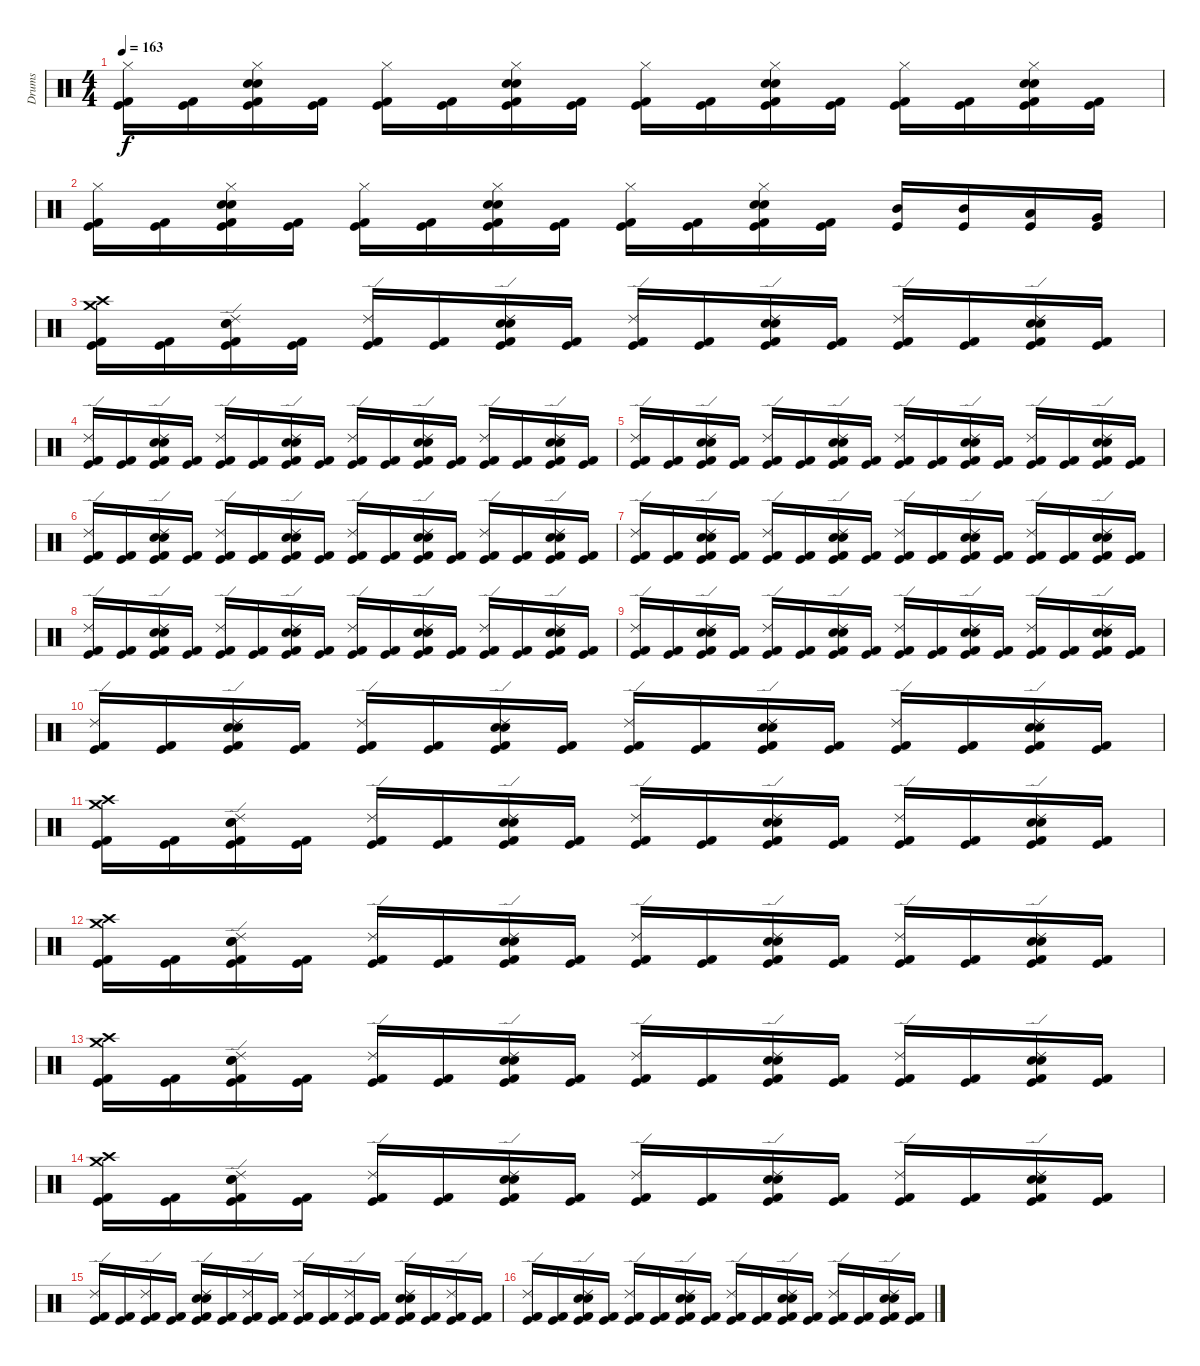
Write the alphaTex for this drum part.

\track ("Drums" "Drums") {instrument percussion}
\staff {score}
\articulation defaults
\ts (4 4)
\tempo 163
\clef neutral
\ks c
("Hi-Hat (closed)" "Kick (hit) 2" "Kick (hit)").16{dy f} ("Kick (hit) 2" "Kick (hit)").16 ("Electric Snare (hit)" "Snare (hit) 2" "Hi-Hat (closed)" "Kick (hit) 2" "Kick (hit)").16 ("Kick (hit) 2" "Kick (hit)").16 ("Hi-Hat (closed)" "Kick (hit) 2" "Kick (hit)").16 ("Kick (hit) 2" "Kick (hit)").16 ("Electric Snare (hit)" "Snare (hit) 2" "Hi-Hat (closed)" "Kick (hit) 2" "Kick (hit)").16 ("Kick (hit) 2" "Kick (hit)").16 ("Hi-Hat (closed)" "Kick (hit) 2" "Kick (hit)").16 ("Kick (hit) 2" "Kick (hit)").16 ("Electric Snare (hit)" "Snare (hit) 2" "Hi-Hat (closed)" "Kick (hit) 2" "Kick (hit)").16 ("Kick (hit) 2" "Kick (hit)").16 ("Hi-Hat (closed)" "Kick (hit) 2" "Kick (hit)").16 ("Kick (hit) 2" "Kick (hit)").16 ("Electric Snare (hit)" "Snare (hit) 2" "Hi-Hat (closed)" "Kick (hit) 2" "Kick (hit)").16 ("Kick (hit) 2" "Kick (hit)").16 |
("Hi-Hat (closed)" "Kick (hit) 2" "Kick (hit)").16 ("Kick (hit) 2" "Kick (hit)").16 ("Electric Snare (hit)" "Snare (hit) 2" "Hi-Hat (closed)" "Kick (hit) 2" "Kick (hit)").16 ("Kick (hit) 2" "Kick (hit)").16 ("Hi-Hat (closed)" "Kick (hit) 2" "Kick (hit)").16 ("Kick (hit) 2" "Kick (hit)").16 ("Electric Snare (hit)" "Snare (hit) 2" "Hi-Hat (closed)" "Kick (hit) 2" "Kick (hit)").16 ("Kick (hit) 2" "Kick (hit)").16 ("Hi-Hat (closed)" "Kick (hit) 2" "Kick (hit)").16 ("Kick (hit) 2" "Kick (hit)").16 ("Electric Snare (hit)" "Snare (hit) 2" "Hi-Hat (closed)" "Kick (hit) 2" "Kick (hit)").16 ("Kick (hit) 2" "Kick (hit)").16 ("Mid Tom (hit)" "Kick (hit)").16 ("Mid Tom (hit)" "Kick (hit)").16 ("Low Tom (hit)" "Kick (hit)").16 ("Very Low Tom (hit)" "Kick (hit)").16 |
("Crash high (hit)" "Crash medium (hit)" "Kick (hit) 2" "Kick (hit)").16 ("Kick (hit) 2" "Kick (hit)").16 ("Ride (edge) 2" "Electric Snare (hit)" "Snare (hit) 2" "Kick (hit) 2" "Kick (hit)").16 ("Kick (hit) 2" "Kick (hit)").16 ("Ride (edge) 2" "Kick (hit) 2" "Kick (hit)").16 ("Kick (hit) 2" "Kick (hit)").16 ("Ride (edge) 2" "Electric Snare (hit)" "Snare (hit) 2" "Kick (hit) 2" "Kick (hit)").16 ("Kick (hit) 2" "Kick (hit)").16 ("Ride (edge) 2" "Kick (hit) 2" "Kick (hit)").16 ("Kick (hit) 2" "Kick (hit)").16 ("Ride (edge) 2" "Electric Snare (hit)" "Snare (hit) 2" "Kick (hit) 2" "Kick (hit)").16 ("Kick (hit) 2" "Kick (hit)").16 ("Ride (edge) 2" "Kick (hit) 2" "Kick (hit)").16 ("Kick (hit) 2" "Kick (hit)").16 ("Ride (edge) 2" "Electric Snare (hit)" "Snare (hit) 2" "Kick (hit) 2" "Kick (hit)").16 ("Kick (hit) 2" "Kick (hit)").16 |
("Ride (edge) 2" "Kick (hit) 2" "Kick (hit)").16 ("Kick (hit) 2" "Kick (hit)").16 ("Ride (edge) 2" "Electric Snare (hit)" "Snare (hit) 2" "Kick (hit) 2" "Kick (hit)").16 ("Kick (hit) 2" "Kick (hit)").16 ("Ride (edge) 2" "Kick (hit) 2" "Kick (hit)").16 ("Kick (hit) 2" "Kick (hit)").16 ("Ride (edge) 2" "Electric Snare (hit)" "Snare (hit) 2" "Kick (hit) 2" "Kick (hit)").16 ("Kick (hit) 2" "Kick (hit)").16 ("Ride (edge) 2" "Kick (hit) 2" "Kick (hit)").16 ("Kick (hit) 2" "Kick (hit)").16 ("Ride (edge) 2" "Electric Snare (hit)" "Snare (hit) 2" "Kick (hit) 2" "Kick (hit)").16 ("Kick (hit) 2" "Kick (hit)").16 ("Ride (edge) 2" "Kick (hit) 2" "Kick (hit)").16 ("Kick (hit) 2" "Kick (hit)").16 ("Ride (edge) 2" "Electric Snare (hit)" "Snare (hit) 2" "Kick (hit) 2" "Kick (hit)").16 ("Kick (hit) 2" "Kick (hit)").16 |
("Ride (edge) 2" "Kick (hit) 2" "Kick (hit)").16 ("Kick (hit) 2" "Kick (hit)").16 ("Ride (edge) 2" "Electric Snare (hit)" "Snare (hit) 2" "Kick (hit) 2" "Kick (hit)").16 ("Kick (hit) 2" "Kick (hit)").16 ("Ride (edge) 2" "Kick (hit) 2" "Kick (hit)").16 ("Kick (hit) 2" "Kick (hit)").16 ("Ride (edge) 2" "Electric Snare (hit)" "Snare (hit) 2" "Kick (hit) 2" "Kick (hit)").16 ("Kick (hit) 2" "Kick (hit)").16 ("Ride (edge) 2" "Kick (hit) 2" "Kick (hit)").16 ("Kick (hit) 2" "Kick (hit)").16 ("Ride (edge) 2" "Electric Snare (hit)" "Snare (hit) 2" "Kick (hit) 2" "Kick (hit)").16 ("Kick (hit) 2" "Kick (hit)").16 ("Ride (edge) 2" "Kick (hit) 2" "Kick (hit)").16 ("Kick (hit) 2" "Kick (hit)").16 ("Ride (edge) 2" "Electric Snare (hit)" "Snare (hit) 2" "Kick (hit) 2" "Kick (hit)").16 ("Kick (hit) 2" "Kick (hit)").16 |
("Ride (edge) 2" "Kick (hit) 2" "Kick (hit)").16 ("Kick (hit) 2" "Kick (hit)").16 ("Ride (edge) 2" "Electric Snare (hit)" "Snare (hit) 2" "Kick (hit) 2" "Kick (hit)").16 ("Kick (hit) 2" "Kick (hit)").16 ("Ride (edge) 2" "Kick (hit) 2" "Kick (hit)").16 ("Kick (hit) 2" "Kick (hit)").16 ("Ride (edge) 2" "Electric Snare (hit)" "Snare (hit) 2" "Kick (hit) 2" "Kick (hit)").16 ("Kick (hit) 2" "Kick (hit)").16 ("Ride (edge) 2" "Kick (hit) 2" "Kick (hit)").16 ("Kick (hit) 2" "Kick (hit)").16 ("Ride (edge) 2" "Electric Snare (hit)" "Snare (hit) 2" "Kick (hit) 2" "Kick (hit)").16 ("Kick (hit) 2" "Kick (hit)").16 ("Ride (edge) 2" "Kick (hit) 2" "Kick (hit)").16 ("Kick (hit) 2" "Kick (hit)").16 ("Ride (edge) 2" "Electric Snare (hit)" "Snare (hit) 2" "Kick (hit) 2" "Kick (hit)").16 ("Kick (hit) 2" "Kick (hit)").16 |
("Ride (edge) 2" "Kick (hit) 2" "Kick (hit)").16 ("Kick (hit) 2" "Kick (hit)").16 ("Ride (edge) 2" "Electric Snare (hit)" "Snare (hit) 2" "Kick (hit) 2" "Kick (hit)").16 ("Kick (hit) 2" "Kick (hit)").16 ("Ride (edge) 2" "Kick (hit) 2" "Kick (hit)").16 ("Kick (hit) 2" "Kick (hit)").16 ("Ride (edge) 2" "Electric Snare (hit)" "Snare (hit) 2" "Kick (hit) 2" "Kick (hit)").16 ("Kick (hit) 2" "Kick (hit)").16 ("Ride (edge) 2" "Kick (hit) 2" "Kick (hit)").16 ("Kick (hit) 2" "Kick (hit)").16 ("Ride (edge) 2" "Electric Snare (hit)" "Snare (hit) 2" "Kick (hit) 2" "Kick (hit)").16 ("Kick (hit) 2" "Kick (hit)").16 ("Ride (edge) 2" "Kick (hit) 2" "Kick (hit)").16 ("Kick (hit) 2" "Kick (hit)").16 ("Ride (edge) 2" "Electric Snare (hit)" "Snare (hit) 2" "Kick (hit) 2" "Kick (hit)").16 ("Kick (hit) 2" "Kick (hit)").16 |
("Ride (edge) 2" "Kick (hit) 2" "Kick (hit)").16 ("Kick (hit) 2" "Kick (hit)").16 ("Ride (edge) 2" "Electric Snare (hit)" "Snare (hit) 2" "Kick (hit) 2" "Kick (hit)").16 ("Kick (hit) 2" "Kick (hit)").16 ("Ride (edge) 2" "Kick (hit) 2" "Kick (hit)").16 ("Kick (hit) 2" "Kick (hit)").16 ("Ride (edge) 2" "Electric Snare (hit)" "Snare (hit) 2" "Kick (hit) 2" "Kick (hit)").16 ("Kick (hit) 2" "Kick (hit)").16 ("Ride (edge) 2" "Kick (hit) 2" "Kick (hit)").16 ("Kick (hit) 2" "Kick (hit)").16 ("Ride (edge) 2" "Electric Snare (hit)" "Snare (hit) 2" "Kick (hit) 2" "Kick (hit)").16 ("Kick (hit) 2" "Kick (hit)").16 ("Ride (edge) 2" "Kick (hit) 2" "Kick (hit)").16 ("Kick (hit) 2" "Kick (hit)").16 ("Ride (edge) 2" "Electric Snare (hit)" "Snare (hit) 2" "Kick (hit) 2" "Kick (hit)").16 ("Kick (hit) 2" "Kick (hit)").16 |
("Ride (edge) 2" "Kick (hit) 2" "Kick (hit)").16 ("Kick (hit) 2" "Kick (hit)").16 ("Ride (edge) 2" "Electric Snare (hit)" "Snare (hit) 2" "Kick (hit) 2" "Kick (hit)").16 ("Kick (hit) 2" "Kick (hit)").16 ("Ride (edge) 2" "Kick (hit) 2" "Kick (hit)").16 ("Kick (hit) 2" "Kick (hit)").16 ("Ride (edge) 2" "Electric Snare (hit)" "Snare (hit) 2" "Kick (hit) 2" "Kick (hit)").16 ("Kick (hit) 2" "Kick (hit)").16 ("Ride (edge) 2" "Kick (hit) 2" "Kick (hit)").16 ("Kick (hit) 2" "Kick (hit)").16 ("Ride (edge) 2" "Electric Snare (hit)" "Snare (hit) 2" "Kick (hit) 2" "Kick (hit)").16 ("Kick (hit) 2" "Kick (hit)").16 ("Ride (edge) 2" "Kick (hit) 2" "Kick (hit)").16 ("Kick (hit) 2" "Kick (hit)").16 ("Ride (edge) 2" "Electric Snare (hit)" "Snare (hit) 2" "Kick (hit) 2" "Kick (hit)").16 ("Kick (hit) 2" "Kick (hit)").16 |
("Ride (edge) 2" "Kick (hit) 2" "Kick (hit)").16 ("Kick (hit) 2" "Kick (hit)").16 ("Ride (edge) 2" "Electric Snare (hit)" "Snare (hit) 2" "Kick (hit) 2" "Kick (hit)").16 ("Kick (hit) 2" "Kick (hit)").16 ("Ride (edge) 2" "Kick (hit) 2" "Kick (hit)").16 ("Kick (hit) 2" "Kick (hit)").16 ("Ride (edge) 2" "Electric Snare (hit)" "Snare (hit) 2" "Kick (hit) 2" "Kick (hit)").16 ("Kick (hit) 2" "Kick (hit)").16 ("Ride (edge) 2" "Kick (hit) 2" "Kick (hit)").16 ("Kick (hit) 2" "Kick (hit)").16 ("Ride (edge) 2" "Electric Snare (hit)" "Snare (hit) 2" "Kick (hit) 2" "Kick (hit)").16 ("Kick (hit) 2" "Kick (hit)").16 ("Ride (edge) 2" "Kick (hit) 2" "Kick (hit)").16 ("Kick (hit) 2" "Kick (hit)").16 ("Ride (edge) 2" "Electric Snare (hit)" "Snare (hit) 2" "Kick (hit) 2" "Kick (hit)").16 ("Kick (hit) 2" "Kick (hit)").16 |
("Crash high (hit)" "Crash medium (hit)" "Kick (hit) 2" "Kick (hit)").16 ("Kick (hit) 2" "Kick (hit)").16 ("Ride (edge) 2" "Electric Snare (hit)" "Snare (hit) 2" "Kick (hit) 2" "Kick (hit)").16 ("Kick (hit) 2" "Kick (hit)").16 ("Ride (edge) 2" "Kick (hit) 2" "Kick (hit)").16 ("Kick (hit) 2" "Kick (hit)").16 ("Ride (edge) 2" "Electric Snare (hit)" "Snare (hit) 2" "Kick (hit) 2" "Kick (hit)").16 ("Kick (hit) 2" "Kick (hit)").16 ("Ride (edge) 2" "Kick (hit) 2" "Kick (hit)").16 ("Kick (hit) 2" "Kick (hit)").16 ("Ride (edge) 2" "Electric Snare (hit)" "Snare (hit) 2" "Kick (hit) 2" "Kick (hit)").16 ("Kick (hit) 2" "Kick (hit)").16 ("Ride (edge) 2" "Kick (hit) 2" "Kick (hit)").16 ("Kick (hit) 2" "Kick (hit)").16 ("Ride (edge) 2" "Electric Snare (hit)" "Snare (hit) 2" "Kick (hit) 2" "Kick (hit)").16 ("Kick (hit) 2" "Kick (hit)").16 |
("Crash high (hit)" "Crash medium (hit)" "Kick (hit) 2" "Kick (hit)").16 ("Kick (hit) 2" "Kick (hit)").16 ("Ride (edge) 2" "Electric Snare (hit)" "Snare (hit) 2" "Kick (hit) 2" "Kick (hit)").16 ("Kick (hit) 2" "Kick (hit)").16 ("Ride (edge) 2" "Kick (hit) 2" "Kick (hit)").16 ("Kick (hit) 2" "Kick (hit)").16 ("Ride (edge) 2" "Electric Snare (hit)" "Snare (hit) 2" "Kick (hit) 2" "Kick (hit)").16 ("Kick (hit) 2" "Kick (hit)").16 ("Ride (edge) 2" "Kick (hit) 2" "Kick (hit)").16 ("Kick (hit) 2" "Kick (hit)").16 ("Ride (edge) 2" "Electric Snare (hit)" "Snare (hit) 2" "Kick (hit) 2" "Kick (hit)").16 ("Kick (hit) 2" "Kick (hit)").16 ("Ride (edge) 2" "Kick (hit) 2" "Kick (hit)").16 ("Kick (hit) 2" "Kick (hit)").16 ("Ride (edge) 2" "Electric Snare (hit)" "Snare (hit) 2" "Kick (hit) 2" "Kick (hit)").16 ("Kick (hit) 2" "Kick (hit)").16 |
("Crash high (hit)" "Crash medium (hit)" "Kick (hit) 2" "Kick (hit)").16 ("Kick (hit) 2" "Kick (hit)").16 ("Ride (edge) 2" "Electric Snare (hit)" "Snare (hit) 2" "Kick (hit) 2" "Kick (hit)").16 ("Kick (hit) 2" "Kick (hit)").16 ("Ride (edge) 2" "Kick (hit) 2" "Kick (hit)").16 ("Kick (hit) 2" "Kick (hit)").16 ("Ride (edge) 2" "Electric Snare (hit)" "Snare (hit) 2" "Kick (hit) 2" "Kick (hit)").16 ("Kick (hit) 2" "Kick (hit)").16 ("Ride (edge) 2" "Kick (hit) 2" "Kick (hit)").16 ("Kick (hit) 2" "Kick (hit)").16 ("Ride (edge) 2" "Electric Snare (hit)" "Snare (hit) 2" "Kick (hit) 2" "Kick (hit)").16 ("Kick (hit) 2" "Kick (hit)").16 ("Ride (edge) 2" "Kick (hit) 2" "Kick (hit)").16 ("Kick (hit) 2" "Kick (hit)").16 ("Ride (edge) 2" "Electric Snare (hit)" "Snare (hit) 2" "Kick (hit) 2" "Kick (hit)").16 ("Kick (hit) 2" "Kick (hit)").16 |
("Crash high (hit)" "Crash medium (hit)" "Kick (hit) 2" "Kick (hit)").16 ("Kick (hit) 2" "Kick (hit)").16 ("Ride (edge) 2" "Electric Snare (hit)" "Snare (hit) 2" "Kick (hit) 2" "Kick (hit)").16 ("Kick (hit) 2" "Kick (hit)").16 ("Ride (edge) 2" "Kick (hit) 2" "Kick (hit)").16 ("Kick (hit) 2" "Kick (hit)").16 ("Ride (edge) 2" "Electric Snare (hit)" "Snare (hit) 2" "Kick (hit) 2" "Kick (hit)").16 ("Kick (hit) 2" "Kick (hit)").16 ("Ride (edge) 2" "Kick (hit) 2" "Kick (hit)").16 ("Kick (hit) 2" "Kick (hit)").16 ("Ride (edge) 2" "Electric Snare (hit)" "Snare (hit) 2" "Kick (hit) 2" "Kick (hit)").16 ("Kick (hit) 2" "Kick (hit)").16 ("Ride (edge) 2" "Kick (hit) 2" "Kick (hit)").16 ("Kick (hit) 2" "Kick (hit)").16 ("Ride (edge) 2" "Electric Snare (hit)" "Snare (hit) 2" "Kick (hit) 2" "Kick (hit)").16 ("Kick (hit) 2" "Kick (hit)").16 |
("Ride (edge) 2" "Kick (hit) 2" "Kick (hit)").16 ("Kick (hit) 2" "Kick (hit)").16 ("Ride (edge) 2" "Kick (hit) 2" "Kick (hit)").16 ("Kick (hit) 2" "Kick (hit)").16 ("Electric Snare (hit)" "Snare (hit) 2" "Ride (edge) 2" "Kick (hit) 2" "Kick (hit)").16 ("Kick (hit) 2" "Kick (hit)").16 ("Ride (edge) 2" "Kick (hit) 2" "Kick (hit)").16 ("Kick (hit) 2" "Kick (hit)").16 ("Ride (edge) 2" "Kick (hit) 2" "Kick (hit)").16 ("Kick (hit) 2" "Kick (hit)").16 ("Ride (edge) 2" "Kick (hit) 2" "Kick (hit)").16 ("Kick (hit) 2" "Kick (hit)").16 ("Electric Snare (hit)" "Snare (hit) 2" "Ride (edge) 2" "Kick (hit) 2" "Kick (hit)").16 ("Kick (hit) 2" "Kick (hit)").16 ("Ride (edge) 2" "Kick (hit) 2" "Kick (hit)").16 ("Kick (hit) 2" "Kick (hit)").16 |
("Ride (edge) 2" "Kick (hit) 2" "Kick (hit)").16 ("Kick (hit) 2" "Kick (hit)").16 ("Ride (edge) 2" "Electric Snare (hit)" "Snare (hit) 2" "Kick (hit) 2" "Kick (hit)").16 ("Kick (hit) 2" "Kick (hit)").16 ("Ride (edge) 2" "Kick (hit) 2" "Kick (hit)").16 ("Kick (hit) 2" "Kick (hit)").16 ("Ride (edge) 2" "Electric Snare (hit)" "Snare (hit) 2" "Kick (hit) 2" "Kick (hit)").16 ("Kick (hit) 2" "Kick (hit)").16 ("Ride (edge) 2" "Kick (hit) 2" "Kick (hit)").16 ("Kick (hit) 2" "Kick (hit)").16 ("Ride (edge) 2" "Electric Snare (hit)" "Snare (hit) 2" "Kick (hit) 2" "Kick (hit)").16 ("Kick (hit) 2" "Kick (hit)").16 ("Ride (edge) 2" "Kick (hit) 2" "Kick (hit)").16 ("Kick (hit) 2" "Kick (hit)").16 ("Ride (edge) 2" "Electric Snare (hit)" "Snare (hit) 2" "Kick (hit) 2" "Kick (hit)").16 ("Kick (hit) 2" "Kick (hit)").16
